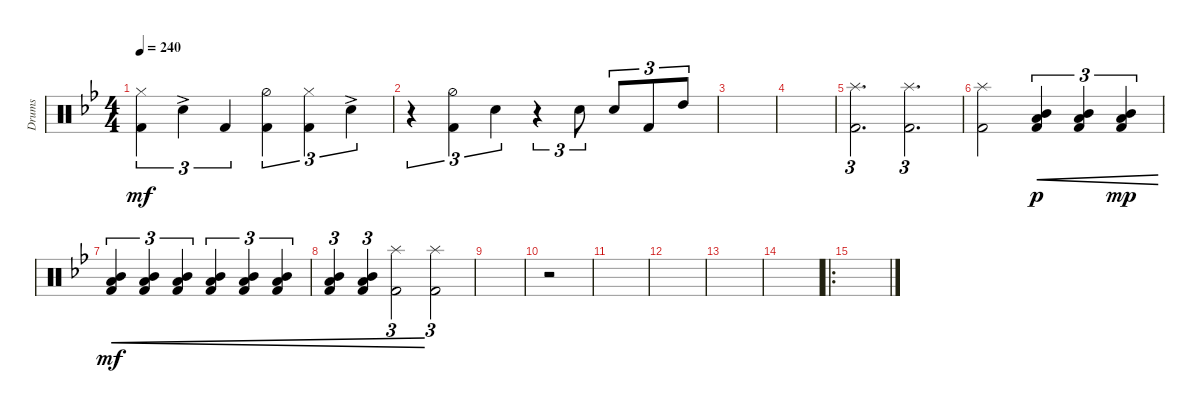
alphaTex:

\defaultSystemsLayout 4
\bracketExtendMode groupsimilarinstruments
\otherSystemsTrackNameOrientation horizontal
\track ("Drumkit" "Drums") {instrument percussion}
\staff {score}
\articulation defaults
\ts (4 4)
\tempo 240
\clef neutral
\ks bb
("Kick (hit) 2"{acc forcenatural} "Hi-Hat (closed)"{acc forcenatural}).4{tu (3 2) dy mf} "Snare (hit) 2"{ac acc forcenatural}.4{tu (3 2)} "Kick (hit) 2"{acc forcenatural}.4{tu (3 2)} ("Kick (hit) 2"{acc forcenatural} "Hi-Hat (half)"{acc forcenatural}).4{tu (3 2)} ("Kick (hit) 2"{acc forcenatural} "Hi-Hat (closed)"{acc forcenatural}).4{tu (3 2)} "Snare (hit) 2"{ac acc forcenatural}.4{tu (3 2)} |
r.4{tu (3 2)} ("Kick (hit) 2"{acc forcenatural} "Hi-Hat (half)"{acc forcenatural}).4{tu (3 2)} "Snare (hit) 2"{acc forcenatural}.4{tu (3 2)} r.4{tu (3 2)} "Snare (hit) 2"{acc forcenatural}.8{tu (3 2)} "Snare (hit) 2"{acc forcenatural}.8{tu (3 2)} "Kick (hit) 2"{acc forcenatural}.8{tu (3 2)} "High Tom (hit)"{acc forcenatural}.8{tu (3 2)} |
|
|
("Splash (hit)"{acc forcenatural} "Kick (hit) 2"{acc forcenatural}).2{d tu (3 2)} ("Splash (hit)"{acc forcenatural} "Kick (hit) 2"{acc forcenatural}).2{d tu (3 2)} |
("Splash (hit)"{acc forcenatural} "Kick (hit) 2"{acc forcenatural}).2 ("Kick (hit) 2"{acc forcenatural} "Low Tom (hit)"{acc forcenatural} "Mid Tom (hit)"{acc forcenatural}).4{tu (3 2) cre dy p} ("Kick (hit) 2"{acc forcenatural} "Low Tom (hit)"{acc forcenatural} "Mid Tom (hit)"{acc forcenatural}).4{tu (3 2) cre} ("Kick (hit) 2"{acc forcenatural} "Low Tom (hit)"{acc forcenatural} "Mid Tom (hit)"{acc forcenatural}).4{tu (3 2) cre dy mp} |
("Kick (hit) 2"{acc forcenatural} "Low Tom (hit)"{acc forcenatural} "Mid Tom (hit)"{acc forcenatural}).4{tu (3 2) cre dy mf} ("Kick (hit) 2"{acc forcenatural} "Low Tom (hit)"{acc forcenatural} "Mid Tom (hit)"{acc forcenatural}).4{tu (3 2) cre} ("Kick (hit) 2"{acc forcenatural} "Low Tom (hit)"{acc forcenatural} "Mid Tom (hit)"{acc forcenatural}).4{tu (3 2) cre} ("Kick (hit) 2"{acc forcenatural} "Low Tom (hit)"{acc forcenatural} "Mid Tom (hit)"{acc forcenatural}).4{tu (3 2) cre} ("Kick (hit) 2"{acc forcenatural} "Low Tom (hit)"{acc forcenatural} "Mid Tom (hit)"{acc forcenatural}).4{tu (3 2) cre} ("Kick (hit) 2"{acc forcenatural} "Low Tom (hit)"{acc forcenatural} "Mid Tom (hit)"{acc forcenatural}).4{tu (3 2) cre} |
("Kick (hit) 2"{acc forcenatural} "Low Tom (hit)"{acc forcenatural} "Mid Tom (hit)"{acc forcenatural}).4{tu (3 2) cre} ("Kick (hit) 2"{acc forcenatural} "Low Tom (hit)"{acc forcenatural} "Mid Tom (hit)"{acc forcenatural}).4{tu (3 2) cre} ("Kick (hit) 2"{acc forcenatural} "Splash (hit)"{acc forcenatural}).2{tu (3 2) cre} ("Splash (hit)"{acc forcenatural} "Kick (hit) 2"{acc forcenatural}).2{tu (3 2)} |
|
r.2 |
|
|
|
|
\ro
